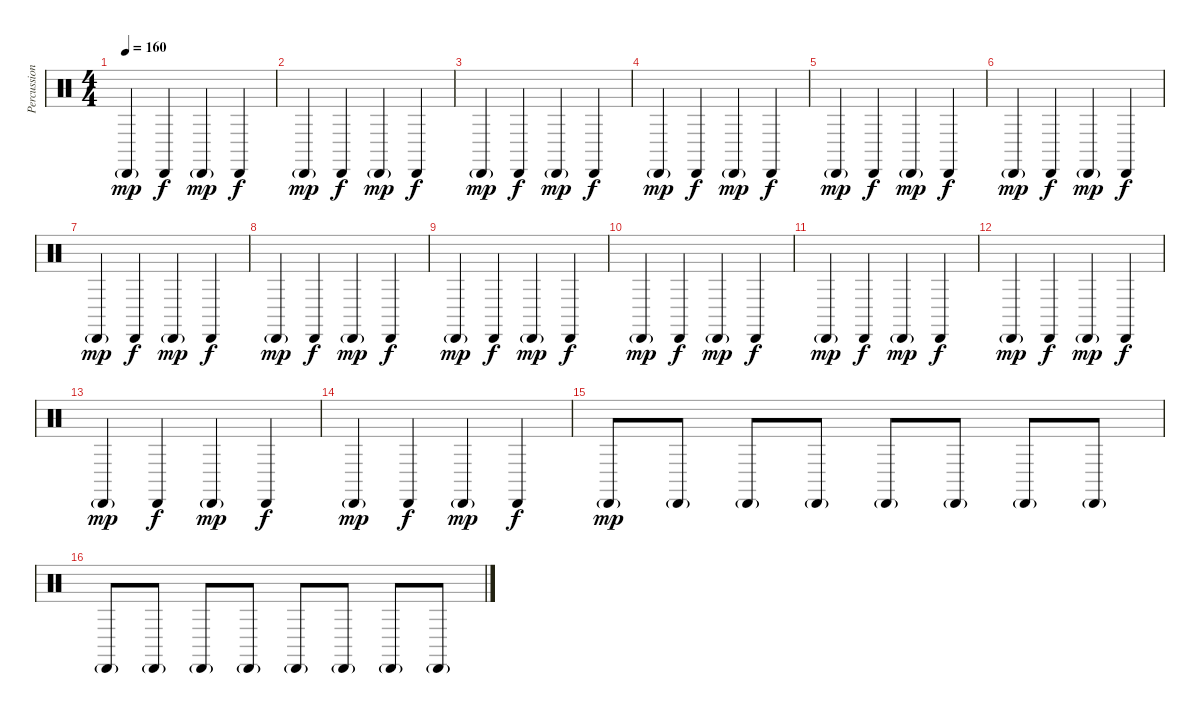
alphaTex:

\track ("Percussion" "Percussion") {instrument percussion}
\staff {score}
\articulation defaults
\ts (4 4)
\tempo 160
\clef neutral
\ks c "Cabasa (hit)"{g}.4{dy mp} "Cabasa (hit)".4{dy f} "Cabasa (hit)"{g}.4{dy mp} "Cabasa (hit)".4{dy f}
|
"Cabasa (hit)"{g}.4{dy mp} "Cabasa (hit)".4{dy f} "Cabasa (hit)"{g}.4{dy mp} "Cabasa (hit)".4{dy f} |
"Cabasa (hit)"{g}.4{dy mp} "Cabasa (hit)".4{dy f} "Cabasa (hit)"{g}.4{dy mp} "Cabasa (hit)".4{dy f} |
"Cabasa (hit)"{g}.4{dy mp} "Cabasa (hit)".4{dy f} "Cabasa (hit)"{g}.4{dy mp} "Cabasa (hit)".4{dy f} |
"Cabasa (hit)"{g}.4{dy mp} "Cabasa (hit)".4{dy f} "Cabasa (hit)"{g}.4{dy mp} "Cabasa (hit)".4{dy f} |
"Cabasa (hit)"{g}.4{dy mp} "Cabasa (hit)".4{dy f} "Cabasa (hit)"{g}.4{dy mp} "Cabasa (hit)".4{dy f} |
"Cabasa (hit)"{g}.4{dy mp} "Cabasa (hit)".4{dy f} "Cabasa (hit)"{g}.4{dy mp} "Cabasa (hit)".4{dy f} |
"Cabasa (hit)"{g}.4{dy mp} "Cabasa (hit)".4{dy f} "Cabasa (hit)"{g}.4{dy mp} "Cabasa (hit)".4{dy f} |
"Cabasa (hit)"{g}.4{dy mp} "Cabasa (hit)".4{dy f} "Cabasa (hit)"{g}.4{dy mp} "Cabasa (hit)".4{dy f} |
"Cabasa (hit)"{g}.4{dy mp} "Cabasa (hit)".4{dy f} "Cabasa (hit)"{g}.4{dy mp} "Cabasa (hit)".4{dy f} |
"Cabasa (hit)"{g}.4{dy mp} "Cabasa (hit)".4{dy f} "Cabasa (hit)"{g}.4{dy mp} "Cabasa (hit)".4{dy f} |
"Cabasa (hit)"{g}.4{dy mp} "Cabasa (hit)".4{dy f} "Cabasa (hit)"{g}.4{dy mp} "Cabasa (hit)".4{dy f} |
"Cabasa (hit)"{g}.4{dy mp} "Cabasa (hit)".4{dy f} "Cabasa (hit)"{g}.4{dy mp} "Cabasa (hit)".4{dy f} |
"Cabasa (hit)"{g}.4{dy mp} "Cabasa (hit)".4{dy f} "Cabasa (hit)"{g}.4{dy mp} "Cabasa (hit)".4{dy f} |
"Cabasa (hit)"{g}.8{bd 60 dy mp} "Cabasa (hit)"{g}.8{bu 60} "Cabasa (hit)"{g}.8{bd 60} "Cabasa (hit)"{g}.8{bu 60} "Cabasa (hit)"{g}.8{bd 60} "Cabasa (hit)"{g}.8{bu 60} "Cabasa (hit)"{g}.8{bd 60} "Cabasa (hit)"{g}.8{bu 60} |
"Cabasa (hit)"{g}.8{bd 60} "Cabasa (hit)"{g}.8{bu 60} "Cabasa (hit)"{g}.8{bd 60} "Cabasa (hit)"{g}.8{bu 60} "Cabasa (hit)"{g}.8{bd 60} "Cabasa (hit)"{g}.8{bu 60} "Cabasa (hit)"{g}.8{bd 60} "Cabasa (hit)"{g}.8{bu 60}
